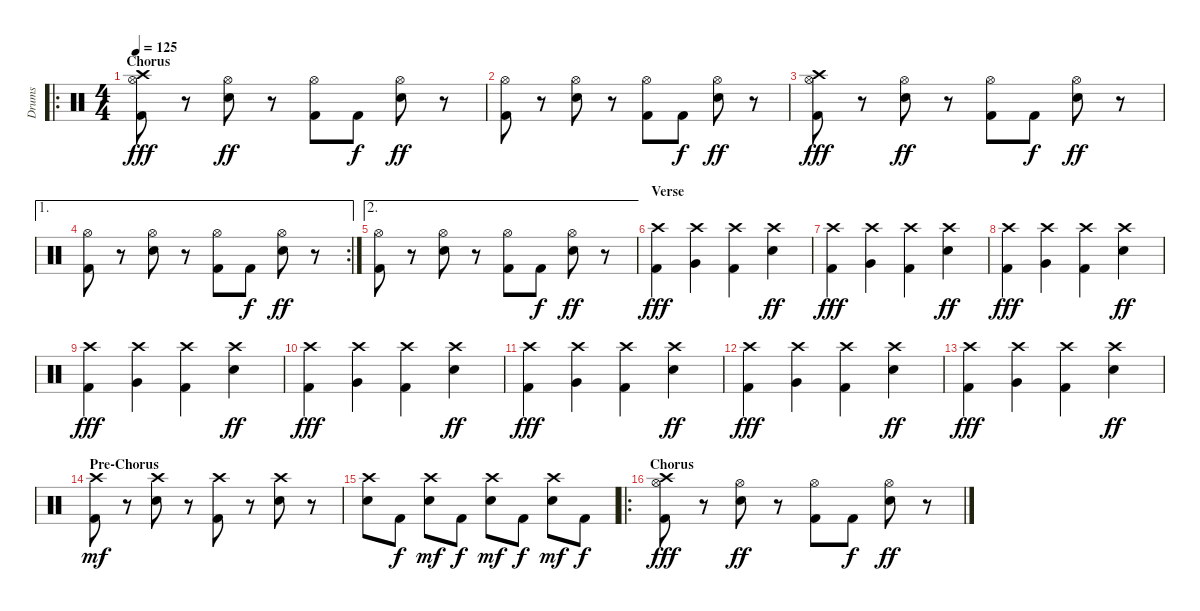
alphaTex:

\track ("Drums" "Drums") {instrument percussion}
\staff {score}
\articulation defaults
\ro
\ts (4 4)
\section ("" "Chorus")
\tempo 125
\clef neutral
\ks c
("Hi-Hat (open)" "Kick (hit) 2" "Crash high (hit)").8{dy fff} r.8 ("Hi-Hat (open)" "Snare (hit) 2").8{dy ff} r.8 ("Hi-Hat (open)" "Kick (hit) 2").8 "Kick (hit) 2".8{dy f} ("Hi-Hat (open)" "Snare (hit) 2").8{dy ff} r.8 |
("Hi-Hat (open)" "Kick (hit) 2").8 r.8 ("Hi-Hat (open)" "Snare (hit) 2").8 r.8 ("Hi-Hat (open)" "Kick (hit) 2").8 "Kick (hit) 2".8{dy f} ("Hi-Hat (open)" "Snare (hit) 2").8{dy ff} r.8 |
("Hi-Hat (open)" "Kick (hit) 2" "Crash high (hit)").8{dy fff} r.8 ("Hi-Hat (open)" "Snare (hit) 2").8{dy ff} r.8 ("Hi-Hat (open)" "Kick (hit) 2").8 "Kick (hit) 2".8{dy f} ("Hi-Hat (open)" "Snare (hit) 2").8{dy ff} r.8 |
\ae 1
\rc 2
("Hi-Hat (open)" "Kick (hit) 2").8 r.8 ("Hi-Hat (open)" "Snare (hit) 2").8 r.8 ("Hi-Hat (open)" "Kick (hit) 2").8 "Kick (hit) 2".8{dy f} ("Hi-Hat (open)" "Snare (hit) 2").8{dy ff} r.8 |
\ae 2
("Hi-Hat (open)" "Kick (hit) 2").8 r.8 ("Hi-Hat (open)" "Snare (hit) 2").8 r.8 ("Hi-Hat (open)" "Kick (hit) 2").8 "Kick (hit) 2".8{dy f} ("Hi-Hat (open)" "Snare (hit) 2").8{dy ff} r.8 |
\section ("" "Verse")
("Crash high (hit)" "Kick (hit) 2").4{dy fff} ("Crash high (hit)" "Very Low Tom (hit)").4 ("Crash high (hit)" "Kick (hit) 2").4 ("Crash high (hit)" "Snare (hit) 2").4{dy ff} |
("Crash high (hit)" "Kick (hit) 2").4{dy fff} ("Crash high (hit)" "Very Low Tom (hit)").4 ("Crash high (hit)" "Kick (hit) 2").4 ("Crash high (hit)" "Snare (hit) 2").4{dy ff} |
("Crash high (hit)" "Kick (hit) 2").4{dy fff} ("Crash high (hit)" "Very Low Tom (hit)").4 ("Crash high (hit)" "Kick (hit) 2").4 ("Crash high (hit)" "Snare (hit) 2").4{dy ff} |
("Crash high (hit)" "Kick (hit) 2").4{dy fff} ("Crash high (hit)" "Very Low Tom (hit)").4 ("Crash high (hit)" "Kick (hit) 2").4 ("Crash high (hit)" "Snare (hit) 2").4{dy ff} |
("Crash high (hit)" "Kick (hit) 2").4{dy fff} ("Crash high (hit)" "Very Low Tom (hit)").4 ("Crash high (hit)" "Kick (hit) 2").4 ("Crash high (hit)" "Snare (hit) 2").4{dy ff} |
("Crash high (hit)" "Kick (hit) 2").4{dy fff} ("Crash high (hit)" "Very Low Tom (hit)").4 ("Crash high (hit)" "Kick (hit) 2").4 ("Crash high (hit)" "Snare (hit) 2").4{dy ff} |
("Crash high (hit)" "Kick (hit) 2").4{dy fff} ("Crash high (hit)" "Very Low Tom (hit)").4 ("Crash high (hit)" "Kick (hit) 2").4 ("Crash high (hit)" "Snare (hit) 2").4{dy ff} |
("Crash high (hit)" "Kick (hit) 2").4{dy fff} ("Crash high (hit)" "Very Low Tom (hit)").4 ("Crash high (hit)" "Kick (hit) 2").4 ("Crash high (hit)" "Snare (hit) 2").4{dy ff} |
\section ("" "Pre-Chorus")
("Crash high (hit)" "Kick (hit) 2").8{dy mf} r.8 ("Crash high (hit)" "Snare (hit) 2").8 r.8 ("Crash high (hit)" "Kick (hit) 2").8 r.8 ("Crash high (hit)" "Snare (hit) 2").8 r.8 |
("Crash high (hit)" "Snare (hit) 2").8 "Kick (hit) 2".8{dy f} ("Crash high (hit)" "Snare (hit) 2").8{dy mf} "Kick (hit) 2".8{dy f} ("Crash high (hit)" "Snare (hit) 2").8{dy mf} "Kick (hit) 2".8{dy f} ("Crash high (hit)" "Snare (hit) 2").8{dy mf} "Kick (hit) 2".8{dy f} |
\ro
\section ("" "Chorus")
("Hi-Hat (open)" "Kick (hit) 2" "Crash high (hit)").8{dy fff} r.8 ("Hi-Hat (open)" "Snare (hit) 2").8{dy ff} r.8 ("Hi-Hat (open)" "Kick (hit) 2").8 "Kick (hit) 2".8{dy f} ("Hi-Hat (open)" "Snare (hit) 2").8{dy ff} r.8
